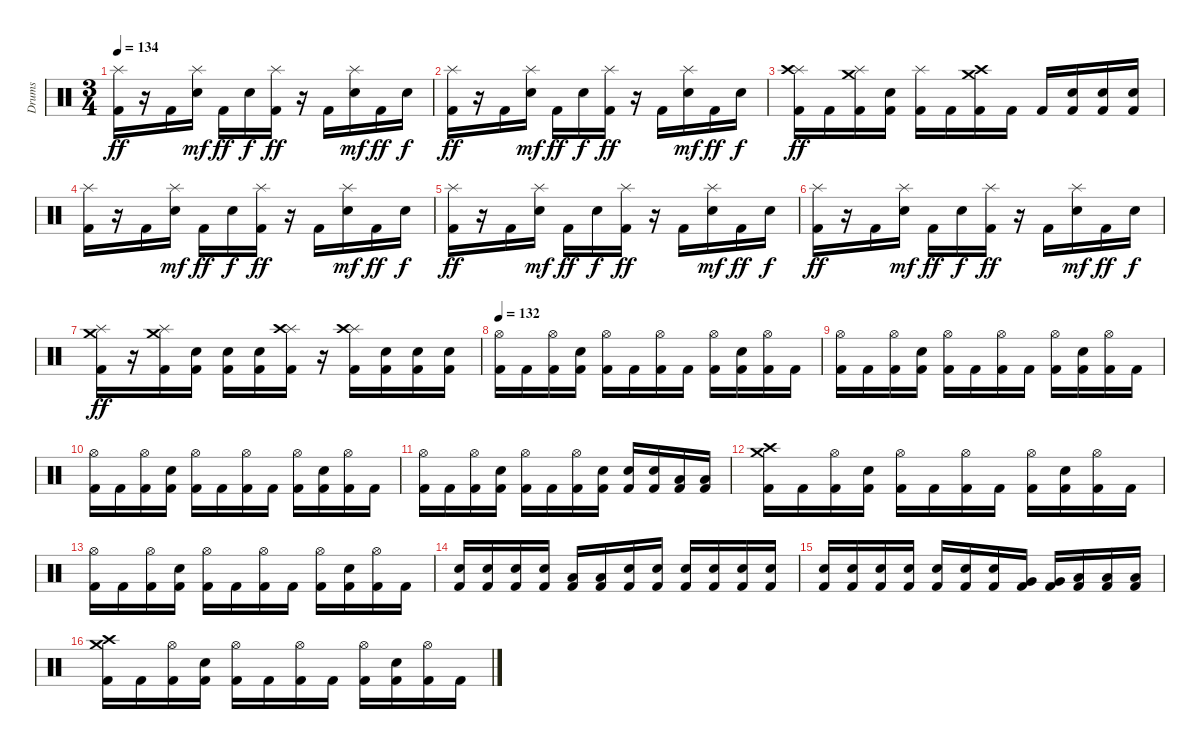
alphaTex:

\track ("Drums" "Drums") {instrument percussion}
\staff {score}
\articulation defaults
\ts (3 4)
\tempo 134
\clef neutral
\ks c
("Splash (hit)" "Kick (hit) 2").16{dy ff} r.16 "Kick (hit) 2".16 ("Splash (hit)" "Snare (hit) 2").16{dy mf} "Kick (hit) 2".16{dy ff} "Snare (hit) 2".16{dy f} ("Splash (hit)" "Kick (hit) 2").16{dy ff} r.16 "Kick (hit) 2".16 ("Splash (hit)" "Snare (hit) 2").16{dy mf} "Kick (hit) 2".16{dy ff} "Snare (hit) 2".16{dy f} |
("Splash (hit)" "Kick (hit) 2").16{dy ff} r.16 "Kick (hit) 2".16 ("Splash (hit)" "Snare (hit) 2").16{dy mf} "Kick (hit) 2".16{dy ff} "Snare (hit) 2".16{dy f} ("Splash (hit)" "Kick (hit) 2").16{dy ff} r.16 "Kick (hit) 2".16 ("Splash (hit)" "Snare (hit) 2").16{dy mf} "Kick (hit) 2".16{dy ff} "Snare (hit) 2".16{dy f} |
("Splash (hit)" "Crash high (hit)" "Kick (hit) 2").16{dy ff} "Kick (hit) 2".16 ("Splash (hit)" "Crash medium (hit)" "Kick (hit) 2").16 ("Snare (hit) 2" "Kick (hit) 2").16 ("Splash (hit)" "Kick (hit) 2").16 "Kick (hit) 2".16 ("Crash high (hit)" "Crash medium (hit)" "Kick (hit) 2").16 "Kick (hit) 2".16 "Kick (hit) 2".16 ("Snare (hit) 2" "Kick (hit) 2").16 ("Snare (hit) 2" "Kick (hit) 2").16 ("Snare (hit) 2" "Kick (hit) 2").16 |
("Splash (hit)" "Kick (hit) 2").16 r.16 "Kick (hit) 2".16 ("Splash (hit)" "Snare (hit) 2").16{dy mf} "Kick (hit) 2".16{dy ff} "Snare (hit) 2".16{dy f} ("Splash (hit)" "Kick (hit) 2").16{dy ff} r.16 "Kick (hit) 2".16 ("Splash (hit)" "Snare (hit) 2").16{dy mf} "Kick (hit) 2".16{dy ff} "Snare (hit) 2".16{dy f} |
("Splash (hit)" "Kick (hit) 2").16{dy ff} r.16 "Kick (hit) 2".16 ("Splash (hit)" "Snare (hit) 2").16{dy mf} "Kick (hit) 2".16{dy ff} "Snare (hit) 2".16{dy f} ("Splash (hit)" "Kick (hit) 2").16{dy ff} r.16 "Kick (hit) 2".16 ("Splash (hit)" "Snare (hit) 2").16{dy mf} "Kick (hit) 2".16{dy ff} "Snare (hit) 2".16{dy f} |
("Splash (hit)" "Kick (hit) 2").16{dy ff} r.16 "Kick (hit) 2".16 ("Splash (hit)" "Snare (hit) 2").16{dy mf} "Kick (hit) 2".16{dy ff} "Snare (hit) 2".16{dy f} ("Splash (hit)" "Kick (hit) 2").16{dy ff} r.16 "Kick (hit) 2".16 ("Splash (hit)" "Snare (hit) 2").16{dy mf} "Kick (hit) 2".16{dy ff} "Snare (hit) 2".16{dy f} |
("Splash (hit)" "Crash medium (hit)" "Kick (hit) 2").16{dy ff} r.16 ("Splash (hit)" "Crash medium (hit)" "Kick (hit) 2").16 ("Snare (hit) 2" "Kick (hit) 2").16 ("Snare (hit) 2" "Kick (hit) 2").16 ("Snare (hit) 2" "Kick (hit) 2").16 ("Splash (hit)" "Crash high (hit)" "Kick (hit) 2").16 r.16 ("Splash (hit)" "Crash high (hit)" "Kick (hit) 2").16 ("Snare (hit) 2" "Kick (hit) 2").16 ("Snare (hit) 2" "Kick (hit) 2").16 ("Snare (hit) 2" "Kick (hit) 2").16 |
\tempo 132
("Hi-Hat (open)" "Kick (hit) 2").16 "Kick (hit) 2".16 ("Hi-Hat (open)" "Kick (hit) 2").16 ("Snare (hit) 2" "Kick (hit) 2").16 ("Hi-Hat (open)" "Kick (hit) 2").16 "Kick (hit) 2".16 ("Hi-Hat (open)" "Kick (hit) 2").16 "Kick (hit) 2".16 ("Hi-Hat (open)" "Kick (hit) 2").16 ("Snare (hit) 2" "Kick (hit) 2").16 ("Hi-Hat (open)" "Kick (hit) 2").16 "Kick (hit) 2".16 |
("Hi-Hat (open)" "Kick (hit) 2").16 "Kick (hit) 2".16 ("Hi-Hat (open)" "Kick (hit) 2").16 ("Snare (hit) 2" "Kick (hit) 2").16 ("Hi-Hat (open)" "Kick (hit) 2").16 "Kick (hit) 2".16 ("Hi-Hat (open)" "Kick (hit) 2").16 "Kick (hit) 2".16 ("Hi-Hat (open)" "Kick (hit) 2").16 ("Snare (hit) 2" "Kick (hit) 2").16 ("Hi-Hat (open)" "Kick (hit) 2").16 "Kick (hit) 2".16 |
("Hi-Hat (open)" "Kick (hit) 2").16 "Kick (hit) 2".16 ("Hi-Hat (open)" "Kick (hit) 2").16 ("Snare (hit) 2" "Kick (hit) 2").16 ("Hi-Hat (open)" "Kick (hit) 2").16 "Kick (hit) 2".16 ("Hi-Hat (open)" "Kick (hit) 2").16 "Kick (hit) 2".16 ("Hi-Hat (open)" "Kick (hit) 2").16 ("Snare (hit) 2" "Kick (hit) 2").16 ("Hi-Hat (open)" "Kick (hit) 2").16 "Kick (hit) 2".16 |
("Hi-Hat (open)" "Kick (hit) 2").16 "Kick (hit) 2".16 ("Hi-Hat (open)" "Kick (hit) 2").16 ("Snare (hit) 2" "Kick (hit) 2").16 ("Hi-Hat (open)" "Kick (hit) 2").16 "Kick (hit) 2".16 ("Hi-Hat (open)" "Kick (hit) 2").16 ("Snare (hit) 2" "Kick (hit) 2").16 ("Snare (hit) 2" "Kick (hit) 2").16 ("Snare (hit) 2" "Kick (hit) 2").16 ("Low Tom (hit)" "Kick (hit) 2").16 ("Low Tom (hit)" "Kick (hit) 2").16 |
("Crash medium (hit)" "Crash high (hit)" "Kick (hit) 2").16 "Kick (hit) 2".16 ("Hi-Hat (open)" "Kick (hit) 2").16 ("Snare (hit) 2" "Kick (hit) 2").16 ("Hi-Hat (open)" "Kick (hit) 2").16 "Kick (hit) 2".16 ("Hi-Hat (open)" "Kick (hit) 2").16 "Kick (hit) 2".16 ("Hi-Hat (open)" "Kick (hit) 2").16 ("Snare (hit) 2" "Kick (hit) 2").16 ("Hi-Hat (open)" "Kick (hit) 2").16 "Kick (hit) 2".16 |
("Hi-Hat (open)" "Kick (hit) 2").16 "Kick (hit) 2".16 ("Hi-Hat (open)" "Kick (hit) 2").16 ("Snare (hit) 2" "Kick (hit) 2").16 ("Hi-Hat (open)" "Kick (hit) 2").16 "Kick (hit) 2".16 ("Hi-Hat (open)" "Kick (hit) 2").16 "Kick (hit) 2".16 ("Hi-Hat (open)" "Kick (hit) 2").16 ("Snare (hit) 2" "Kick (hit) 2").16 ("Hi-Hat (open)" "Kick (hit) 2").16 "Kick (hit) 2".16 |
("Snare (hit) 2" "Kick (hit) 2").16 ("Snare (hit) 2" "Kick (hit) 2").16 ("Snare (hit) 2" "Kick (hit) 2").16 ("Snare (hit) 2" "Kick (hit) 2").16 ("Low Tom (hit)" "Kick (hit) 2").16 ("Low Tom (hit)" "Kick (hit) 2").16 ("Snare (hit) 2" "Kick (hit) 2").16 ("Snare (hit) 2" "Kick (hit) 2").16 ("Snare (hit) 2" "Kick (hit) 2").16 ("Snare (hit) 2" "Kick (hit) 2").16 ("Snare (hit) 2" "Kick (hit) 2").16 ("Snare (hit) 2" "Kick (hit) 2").16 |
("Snare (hit) 2" "Kick (hit) 2").16 ("Snare (hit) 2" "Kick (hit) 2").16 ("Snare (hit) 2" "Kick (hit) 2").16 ("Snare (hit) 2" "Kick (hit) 2").16 ("Snare (hit) 2" "Kick (hit) 2").16 ("Snare (hit) 2" "Kick (hit) 2").16 ("Snare (hit) 2" "Kick (hit) 2").16 ("Very Low Tom (hit)" "Kick (hit) 2").16 ("Very Low Tom (hit)" "Kick (hit) 2").16 ("Low Floor Tom (hit)" "Kick (hit) 2").16 ("Low Floor Tom (hit)" "Kick (hit) 2").16 ("Low Floor Tom (hit)" "Kick (hit) 2").16 |
("Crash medium (hit)" "Crash high (hit)" "Kick (hit) 2").16 "Kick (hit) 2".16 ("Hi-Hat (open)" "Kick (hit) 2").16 ("Snare (hit) 2" "Kick (hit) 2").16 ("Hi-Hat (open)" "Kick (hit) 2").16 "Kick (hit) 2".16 ("Hi-Hat (open)" "Kick (hit) 2").16 "Kick (hit) 2".16 ("Hi-Hat (open)" "Kick (hit) 2").16 ("Snare (hit) 2" "Kick (hit) 2").16 ("Hi-Hat (open)" "Kick (hit) 2").16 "Kick (hit) 2".16
